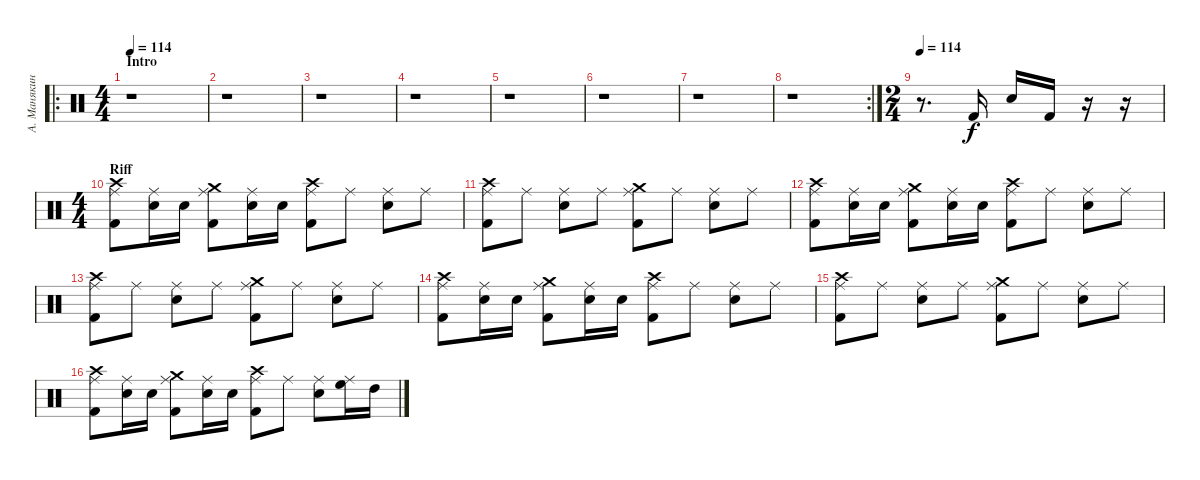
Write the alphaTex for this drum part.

\track ("А. Манякин" "А. Манякин") {instrument percussion}
\staff {score}
\articulation defaults
\ro
\ts (4 4)
\section ("" "Intro")
\tempo 114
\clef neutral
\ks c
r.1{dy f} |
r.1 |
r.1 |
r.1 |
r.1 |
r.1 |
r.1 |
\rc 2
r.1 |
\ts (2 4)
\tempo 114
r.8{d} "Kick (hit) 2".16 "Electric Snare (hit)".16 "Kick (hit) 2".16 r.16 r.16 |
\ts (4 4)
\section ("" "Riff")
("Kick (hit) 2" "Crash high (hit)" "Ride (middle)").8 ("Electric Snare (hit)" "Ride (middle)").16 "Electric Snare (hit)".16 ("Kick (hit) 2" "Crash medium (hit)" "Ride (middle)").8 ("Electric Snare (hit)" "Ride (middle)").16 "Electric Snare (hit)".16 ("Kick (hit) 2" "Crash high (hit)" "Ride (middle)").8 "Ride (middle)".8 ("Electric Snare (hit)" "Ride (middle)").8 "Ride (middle)".8 |
("Kick (hit) 2" "Crash high (hit)" "Ride (middle)").8 "Ride (middle)".8 ("Electric Snare (hit)" "Ride (middle)").8 "Ride (middle)".8 ("Kick (hit) 2" "Crash medium (hit)" "Ride (middle)").8 "Ride (middle)".8 ("Electric Snare (hit)" "Ride (middle)").8 "Ride (middle)".8 |
("Kick (hit) 2" "Crash high (hit)" "Ride (middle)").8 ("Electric Snare (hit)" "Ride (middle)").16 "Electric Snare (hit)".16 ("Kick (hit) 2" "Crash medium (hit)" "Ride (middle)").8 ("Electric Snare (hit)" "Ride (middle)").16 "Electric Snare (hit)".16 ("Kick (hit) 2" "Crash high (hit)" "Ride (middle)").8 "Ride (middle)".8 ("Electric Snare (hit)" "Ride (middle)").8 "Ride (middle)".8 |
("Kick (hit) 2" "Crash high (hit)" "Ride (middle)").8 "Ride (middle)".8 ("Electric Snare (hit)" "Ride (middle)").8 "Ride (middle)".8 ("Kick (hit) 2" "Crash medium (hit)" "Ride (middle)").8 "Ride (middle)".8 ("Electric Snare (hit)" "Ride (middle)").8 "Ride (middle)".8 |
("Kick (hit) 2" "Crash high (hit)" "Ride (middle)").8 ("Electric Snare (hit)" "Ride (middle)").16 "Electric Snare (hit)".16 ("Kick (hit) 2" "Crash medium (hit)" "Ride (middle)").8 ("Electric Snare (hit)" "Ride (middle)").16 "Electric Snare (hit)".16 ("Kick (hit) 2" "Crash high (hit)" "Ride (middle)").8 "Ride (middle)".8 ("Electric Snare (hit)" "Ride (middle)").8 "Ride (middle)".8 |
("Kick (hit) 2" "Crash high (hit)" "Ride (middle)").8 "Ride (middle)".8 ("Electric Snare (hit)" "Ride (middle)").8 "Ride (middle)".8 ("Kick (hit) 2" "Crash medium (hit)" "Ride (middle)").8 "Ride (middle)".8 ("Electric Snare (hit)" "Ride (middle)").8 "Ride (middle)".8 |
("Kick (hit) 2" "Crash high (hit)" "Ride (middle)").8 ("Electric Snare (hit)" "Ride (middle)").16 "Electric Snare (hit)".16 ("Kick (hit) 2" "Crash medium (hit)" "Ride (middle)").8 ("Electric Snare (hit)" "Ride (middle)").16 "Electric Snare (hit)".16 ("Kick (hit) 2" "Crash high (hit)" "Ride (middle)").8 "Ride (middle)".8 ("Electric Snare (hit)" "Ride (middle)").8 ("High Floor Tom (hit)" "Ride (middle)").16 "High Tom (hit)".16
